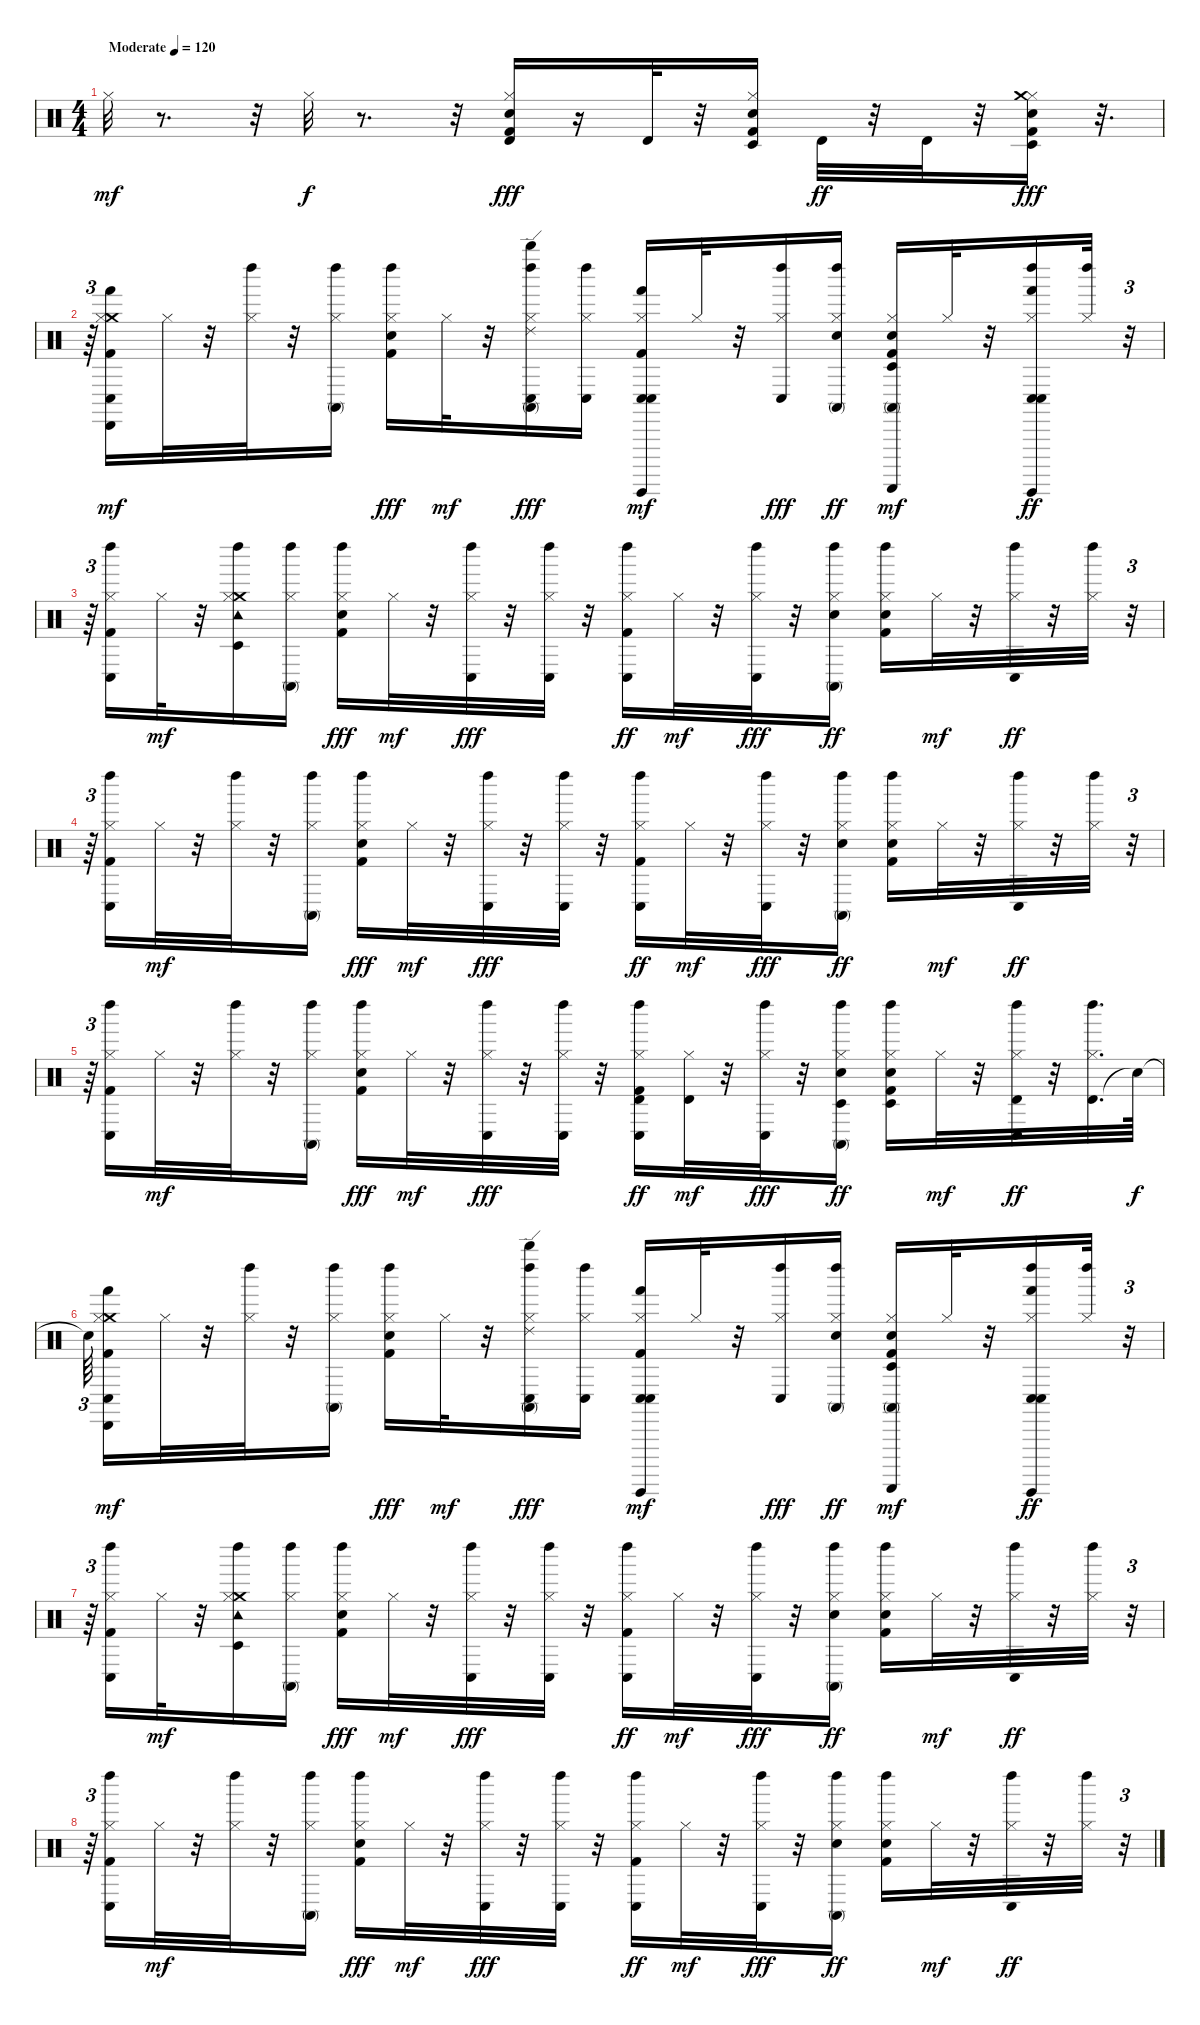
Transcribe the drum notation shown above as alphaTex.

\track "" {instrument percussion}
\staff {score}
\articulation defaults
\ts (4 4)
\tempo (120 "Moderate")
\clef neutral
\ks c "Hi-Hat (closed)".32{dy mf}
r.8{d} r.32 "Hi-Hat (closed)".32{dy f volume 12 balance 8} r.8{d} r.32 ("Kick (hit) 2" "Electric Snare (hit)" "Hi-Hat (closed)" "Timbale high (hit)").16{dy fff} r.16 "Timbale high (hit)".32 r.32 ("Kick (hit) 2" "Electric Snare (hit)" "Hi-Hat (closed)" "Timbale low (hit)").16 "Timbale high (hit)".32{dy ff} r.32 "Timbale high (hit)".32 r.32 ("Kick (hit) 2" "Electric Snare (hit)" "Hi-Hat (closed)" "Crash medium (hit)" "Timbale low (hit)").16{dy fff} r.32{d} |
r.64{tu (3 2)} ("Hand (hit)" "Crash medium (hit)" "Cabasa (hit)" "Kick (hit) 2" "Conga low (hit)" "Hi-Hat (closed)").16{dy mf} "Hi-Hat (closed)".32 r.32 ("Hi-Hat (closed)" "Left Maraca (hit)").32 r.32 ("Conga high (mute)" "Hi-Hat (closed)" "Left Maraca (hit)").16 ("Kick (hit) 2" "Electric Snare (hit)" "Hi-Hat (closed)" "Left Maraca (hit)").16{dy fff} "Hi-Hat (closed)".32{dy mf} r.32 ("Conga high (mute)" "Ride (edge) 2" "Whistle high (hit)" "Conga low (hit)" "Hi-Hat (closed)" "Left Maraca (hit)").16{dy fff} ("Conga low (hit)" "Hi-Hat (closed)" "Left Maraca (hit)").16 ("Conga low (hit)" "Hand (hit)" "Guiro (hit)" "Kick (hit) 2" "Conga low (hit)" "Hi-Hat (closed)").16{dy mf} "Hi-Hat (closed)".32 r.32 ("Conga low (hit)" "Hi-Hat (closed)" "Left Maraca (hit)").16{dy fff} ("Electric Snare (hit)" "Conga high (mute)" "Hi-Hat (closed)" "Left Maraca (hit)").16{dy ff} ("Timbale low (hit)" "Conga high (mute)" "Guiro (scrap-return)" "Kick (hit) 2" "Electric Snare (hit)" "Hi-Hat (closed)").16{dy mf} "Hi-Hat (closed)".32 r.32 ("Conga low (hit)" "Hand (hit)" "Guiro (hit)" "Conga low (hit)" "Hi-Hat (closed)" "Left Maraca (hit)").16{dy ff} ("Hi-Hat (closed)" "Left Maraca (hit)").32 r.32{tu (3 2)} |
r.64{tu (3 2)} ("Kick (hit) 2" "Conga low (hit)" "Hi-Hat (closed)" "Left Maraca (hit)").16 "Hi-Hat (closed)".32{dy mf} r.32 ("Crash medium (hit)" "Tambourine (hit)" "Timbale low (hit)" "Hi-Hat (closed)" "Left Maraca (hit)").16 ("Conga high (mute)" "Hi-Hat (closed)" "Left Maraca (hit)").16 ("Kick (hit) 2" "Electric Snare (hit)" "Hi-Hat (closed)" "Left Maraca (hit)").16{dy fff} "Hi-Hat (closed)".32{dy mf} r.32 ("Conga low (hit)" "Hi-Hat (closed)" "Left Maraca (hit)").32{dy fff} r.32 ("Conga low (hit)" "Hi-Hat (closed)" "Left Maraca (hit)").32 r.32 ("Kick (hit) 2" "Conga low (hit)" "Hi-Hat (closed)" "Left Maraca (hit)").16{dy ff} "Hi-Hat (closed)".32{dy mf} r.32 ("Conga low (hit)" "Hi-Hat (closed)" "Left Maraca (hit)").32{dy fff} r.32 ("Electric Snare (hit)" "Conga high (mute)" "Hi-Hat (closed)" "Left Maraca (hit)").16{dy ff} ("Kick (hit) 2" "Electric Snare (hit)" "Hi-Hat (closed)" "Left Maraca (hit)").16 "Hi-Hat (closed)".32{dy mf} r.32 ("Conga low (hit)" "Hi-Hat (closed)" "Left Maraca (hit)").32{dy ff} r.32 ("Hi-Hat (closed)" "Left Maraca (hit)").32 r.32{tu (3 2)} |
r.64{tu (3 2)} ("Kick (hit) 2" "Conga low (hit)" "Hi-Hat (closed)" "Left Maraca (hit)").16 "Hi-Hat (closed)".32{dy mf} r.32 ("Hi-Hat (closed)" "Left Maraca (hit)").32 r.32 ("Conga high (mute)" "Hi-Hat (closed)" "Left Maraca (hit)").16 ("Kick (hit) 2" "Electric Snare (hit)" "Hi-Hat (closed)" "Left Maraca (hit)").16{dy fff} "Hi-Hat (closed)".32{dy mf} r.32 ("Conga low (hit)" "Hi-Hat (closed)" "Left Maraca (hit)").32{dy fff} r.32 ("Conga low (hit)" "Hi-Hat (closed)" "Left Maraca (hit)").32 r.32 ("Kick (hit) 2" "Conga low (hit)" "Hi-Hat (closed)" "Left Maraca (hit)").16{dy ff} "Hi-Hat (closed)".32{dy mf} r.32 ("Conga low (hit)" "Hi-Hat (closed)" "Left Maraca (hit)").32{dy fff} r.32 ("Electric Snare (hit)" "Conga high (mute)" "Hi-Hat (closed)" "Left Maraca (hit)").16{dy ff} ("Kick (hit) 2" "Electric Snare (hit)" "Hi-Hat (closed)" "Left Maraca (hit)").16 "Hi-Hat (closed)".32{dy mf} r.32 ("Conga low (hit)" "Hi-Hat (closed)" "Left Maraca (hit)").32{dy ff} r.32 ("Hi-Hat (closed)" "Left Maraca (hit)").32 r.32{tu (3 2)} |
r.64{tu (3 2)} ("Kick (hit) 2" "Conga low (hit)" "Hi-Hat (closed)" "Left Maraca (hit)").16 "Hi-Hat (closed)".32{dy mf} r.32 ("Hi-Hat (closed)" "Left Maraca (hit)").32 r.32 ("Conga high (mute)" "Hi-Hat (closed)" "Left Maraca (hit)").16 ("Kick (hit) 2" "Electric Snare (hit)" "Hi-Hat (closed)" "Left Maraca (hit)").16{dy fff} "Hi-Hat (closed)".32{dy mf} r.32 ("Conga low (hit)" "Hi-Hat (closed)" "Left Maraca (hit)").32{dy fff} r.32 ("Conga low (hit)" "Hi-Hat (closed)" "Left Maraca (hit)").32 r.32 ("Kick (hit) 2" "Timbale high (hit)" "Conga low (hit)" "Hi-Hat (closed)" "Left Maraca (hit)").16{dy ff} ("Timbale high (hit)" "Hi-Hat (closed)").32{dy mf} r.32 ("Conga low (hit)" "Hi-Hat (closed)" "Left Maraca (hit)").32{dy fff} r.32 ("Electric Snare (hit)" "Timbale low (hit)" "Conga high (mute)" "Hi-Hat (closed)" "Left Maraca (hit)").16{dy ff} ("Kick (hit) 2" "Electric Snare (hit)" "Timbale low (hit)" "Hi-Hat (closed)" "Left Maraca (hit)").16 "Hi-Hat (closed)".32{dy mf} r.32 ("Timbale high (hit)" "Conga low (hit)" "Hi-Hat (closed)" "Left Maraca (hit)").32{dy ff} r.32 ("Timbale high (hit)" "Hi-Hat (closed)" "Left Maraca (hit)").32{d} "Snare (hit)"{t}.64{dy f} |
"Snare (hit)"{t}.64{tu (3 2) beam splitsecondary} ("Hand (hit)" "Crash medium (hit)" "Cabasa (hit)" "Kick (hit) 2" "Conga low (hit)" "Hi-Hat (closed)").16{dy mf} "Hi-Hat (closed)".32 r.32 ("Hi-Hat (closed)" "Left Maraca (hit)").32 r.32 ("Conga high (mute)" "Hi-Hat (closed)" "Left Maraca (hit)").16 ("Kick (hit) 2" "Electric Snare (hit)" "Hi-Hat (closed)" "Left Maraca (hit)").16{dy fff} "Hi-Hat (closed)".32{dy mf} r.32 ("Conga high (mute)" "Ride (edge) 2" "Whistle high (hit)" "Conga low (hit)" "Hi-Hat (closed)" "Left Maraca (hit)").16{dy fff} ("Conga low (hit)" "Hi-Hat (closed)" "Left Maraca (hit)").16 ("Conga low (hit)" "Hand (hit)" "Guiro (hit)" "Kick (hit) 2" "Conga low (hit)" "Hi-Hat (closed)").16{dy mf} "Hi-Hat (closed)".32 r.32 ("Conga low (hit)" "Hi-Hat (closed)" "Left Maraca (hit)").16{dy fff} ("Electric Snare (hit)" "Conga high (mute)" "Hi-Hat (closed)" "Left Maraca (hit)").16{dy ff} ("Timbale low (hit)" "Conga high (mute)" "Guiro (scrap-return)" "Kick (hit) 2" "Electric Snare (hit)" "Hi-Hat (closed)").16{dy mf} "Hi-Hat (closed)".32 r.32 ("Conga low (hit)" "Hand (hit)" "Guiro (hit)" "Conga low (hit)" "Hi-Hat (closed)" "Left Maraca (hit)").16{dy ff} ("Hi-Hat (closed)" "Left Maraca (hit)").32 r.32{tu (3 2)} |
r.64{tu (3 2)} ("Kick (hit) 2" "Conga low (hit)" "Hi-Hat (closed)" "Left Maraca (hit)").16 "Hi-Hat (closed)".32{dy mf} r.32 ("Crash medium (hit)" "Tambourine (hit)" "Timbale low (hit)" "Hi-Hat (closed)" "Left Maraca (hit)").16 ("Conga high (mute)" "Hi-Hat (closed)" "Left Maraca (hit)").16 ("Kick (hit) 2" "Electric Snare (hit)" "Hi-Hat (closed)" "Left Maraca (hit)").16{dy fff} "Hi-Hat (closed)".32{dy mf} r.32 ("Conga low (hit)" "Hi-Hat (closed)" "Left Maraca (hit)").32{dy fff} r.32 ("Conga low (hit)" "Hi-Hat (closed)" "Left Maraca (hit)").32 r.32 ("Kick (hit) 2" "Conga low (hit)" "Hi-Hat (closed)" "Left Maraca (hit)").16{dy ff} "Hi-Hat (closed)".32{dy mf} r.32 ("Conga low (hit)" "Hi-Hat (closed)" "Left Maraca (hit)").32{dy fff} r.32 ("Electric Snare (hit)" "Conga high (mute)" "Hi-Hat (closed)" "Left Maraca (hit)").16{dy ff} ("Kick (hit) 2" "Electric Snare (hit)" "Hi-Hat (closed)" "Left Maraca (hit)").16 "Hi-Hat (closed)".32{dy mf} r.32 ("Conga low (hit)" "Hi-Hat (closed)" "Left Maraca (hit)").32{dy ff} r.32 ("Hi-Hat (closed)" "Left Maraca (hit)").32 r.32{tu (3 2)} |
r.64{tu (3 2)} ("Kick (hit) 2" "Conga low (hit)" "Hi-Hat (closed)" "Left Maraca (hit)").16 "Hi-Hat (closed)".32{dy mf} r.32 ("Hi-Hat (closed)" "Left Maraca (hit)").32 r.32 ("Conga high (mute)" "Hi-Hat (closed)" "Left Maraca (hit)").16 ("Kick (hit) 2" "Electric Snare (hit)" "Hi-Hat (closed)" "Left Maraca (hit)").16{dy fff} "Hi-Hat (closed)".32{dy mf} r.32 ("Conga low (hit)" "Hi-Hat (closed)" "Left Maraca (hit)").32{dy fff} r.32 ("Conga low (hit)" "Hi-Hat (closed)" "Left Maraca (hit)").32 r.32 ("Kick (hit) 2" "Conga low (hit)" "Hi-Hat (closed)" "Left Maraca (hit)").16{dy ff} "Hi-Hat (closed)".32{dy mf} r.32 ("Conga low (hit)" "Hi-Hat (closed)" "Left Maraca (hit)").32{dy fff} r.32 ("Electric Snare (hit)" "Conga high (mute)" "Hi-Hat (closed)" "Left Maraca (hit)").16{dy ff} ("Kick (hit) 2" "Electric Snare (hit)" "Hi-Hat (closed)" "Left Maraca (hit)").16 "Hi-Hat (closed)".32{dy mf} r.32 ("Conga low (hit)" "Hi-Hat (closed)" "Left Maraca (hit)").32{dy ff} r.32 ("Hi-Hat (closed)" "Left Maraca (hit)").32 r.32{tu (3 2)}
